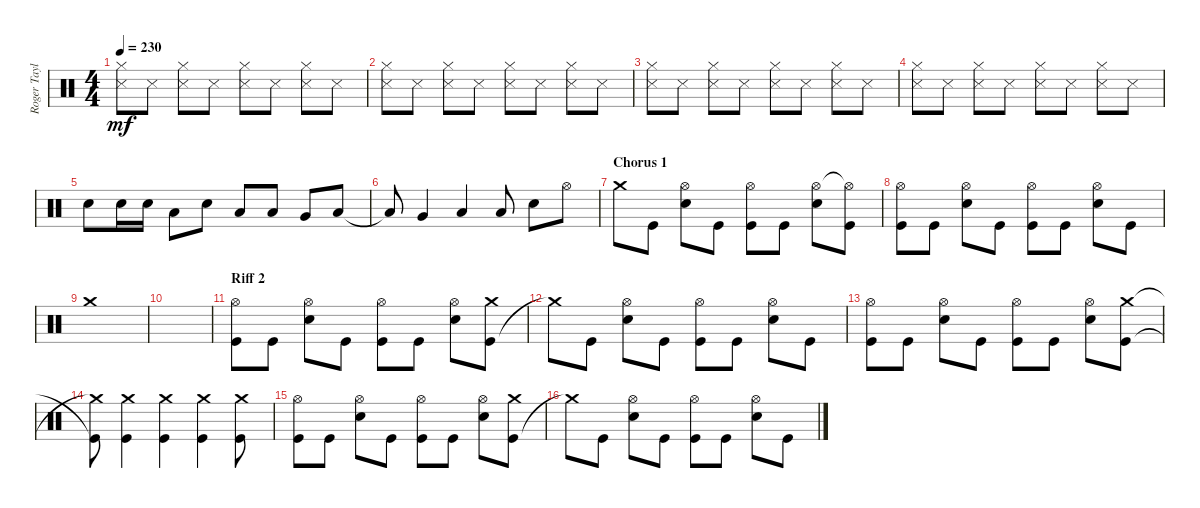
\track ("Roger Taylor" "Roger Tayl") {instrument percussion}
\staff {score}
\articulation defaults
\ts (4 4)
\tempo 230
\clef neutral
\ks c
("Snare (side stick) 3" "Hi-Hat (closed)").8{dy mf} "Snare (side stick) 3".8 ("Snare (side stick) 3" "Hi-Hat (closed)").8 "Snare (side stick) 3".8 ("Snare (side stick) 3" "Hi-Hat (closed)").8 "Snare (side stick) 3".8 ("Snare (side stick) 3" "Hi-Hat (closed)").8 "Snare (side stick) 3".8 |
("Snare (side stick) 3" "Hi-Hat (closed)").8 "Snare (side stick) 3".8 ("Snare (side stick) 3" "Hi-Hat (closed)").8 "Snare (side stick) 3".8 ("Snare (side stick) 3" "Hi-Hat (closed)").8 "Snare (side stick) 3".8 ("Snare (side stick) 3" "Hi-Hat (closed)").8 "Snare (side stick) 3".8 |
("Snare (side stick) 3" "Hi-Hat (closed)").8 "Snare (side stick) 3".8 ("Snare (side stick) 3" "Hi-Hat (closed)").8 "Snare (side stick) 3".8 ("Snare (side stick) 3" "Hi-Hat (closed)").8 "Snare (side stick) 3".8 ("Snare (side stick) 3" "Hi-Hat (closed)").8 "Snare (side stick) 3".8 |
("Snare (side stick) 3" "Hi-Hat (closed)").8 "Snare (side stick) 3".8 ("Snare (side stick) 3" "Hi-Hat (closed)").8 "Snare (side stick) 3".8 ("Snare (side stick) 3" "Hi-Hat (closed)").8 "Snare (side stick) 3".8 ("Snare (side stick) 3" "Hi-Hat (closed)").8 "Snare (side stick) 3".8 |
"Snare (hit) 2".8 "Snare (hit) 2".16 "Snare (hit) 2".16 "Low Tom (hit)".8 "Snare (hit) 2".8 "Low Tom (hit)".8 "Low Tom (hit)".8 "Very Low Tom (hit)".8 "Low Floor Tom (hit)".8 |
"Low Floor Tom (hit)"{t}.8 "Very Low Tom (hit)".4 "Low Tom (hit)".4 "Low Tom (hit)".8 "Snare (hit) 2".8 "Hi-Hat (open)".8 |
\section ("" "Chorus 1")
"Crash medium (hit)".8 "Kick (hit)".8 ("Snare (hit) 2" "Hi-Hat (open)").8 "Kick (hit)".8 ("Kick (hit)" "Hi-Hat (open)").8 "Kick (hit)".8 ("Snare (hit) 2" "Hi-Hat (open)").8 ("Kick (hit)" "Hi-Hat (open)"{t}).8 |
("Hi-Hat (open)" "Kick (hit)").8 "Kick (hit)".8 ("Snare (hit) 2" "Hi-Hat (open)").8 "Kick (hit)".8 ("Kick (hit)" "Hi-Hat (open)").8 "Kick (hit)".8 ("Snare (hit) 2" "Hi-Hat (open)").8 "Kick (hit)".8 |
"Crash medium (hit)".1 |
|
\section ("" "Riff 2")
("Hi-Hat (open)" "Kick (hit)").8 "Kick (hit)".8 ("Hi-Hat (open)" "Snare (hit) 2").8 "Kick (hit)".8 ("Kick (hit)" "Hi-Hat (open)").8 "Kick (hit)".8 ("Hi-Hat (open)" "Snare (hit) 2").8 ("Kick (hit)" "Crash medium (hit)").8 |
"Crash medium (hit)"{t}.8 "Kick (hit)".8 ("Snare (hit) 2" "Hi-Hat (open)").8 "Kick (hit)".8 ("Kick (hit)" "Hi-Hat (open)").8 "Kick (hit)".8 ("Snare (hit) 2" "Hi-Hat (open)").8 "Kick (hit)".8 |
("Hi-Hat (open)" "Kick (hit)").8 "Kick (hit)".8 ("Snare (hit) 2" "Hi-Hat (open)").8 "Kick (hit)".8 ("Kick (hit)" "Hi-Hat (open)").8 "Kick (hit)".8 ("Snare (hit) 2" "Hi-Hat (open)").8 ("Kick (hit)" "Crash medium (hit)").8 |
("Crash medium (hit)"{t} "Kick (hit)"{t}).8 ("Crash medium (hit)" "Kick (hit)").4 ("Crash medium (hit)" "Kick (hit)").4 ("Crash medium (hit)" "Kick (hit)").4 ("Crash medium (hit)" "Kick (hit)").8 |
("Hi-Hat (open)" "Kick (hit)").8 "Kick (hit)".8 ("Hi-Hat (open)" "Snare (hit) 2").8 "Kick (hit)".8 ("Kick (hit)" "Hi-Hat (open)").8 "Kick (hit)".8 ("Hi-Hat (open)" "Snare (hit) 2").8 ("Kick (hit)" "Crash medium (hit)").8 |
"Crash medium (hit)"{t}.8 "Kick (hit)".8 ("Snare (hit) 2" "Hi-Hat (open)").8 "Kick (hit)".8 ("Kick (hit)" "Hi-Hat (open)").8 "Kick (hit)".8 ("Snare (hit) 2" "Hi-Hat (open)").8 "Kick (hit)".8
